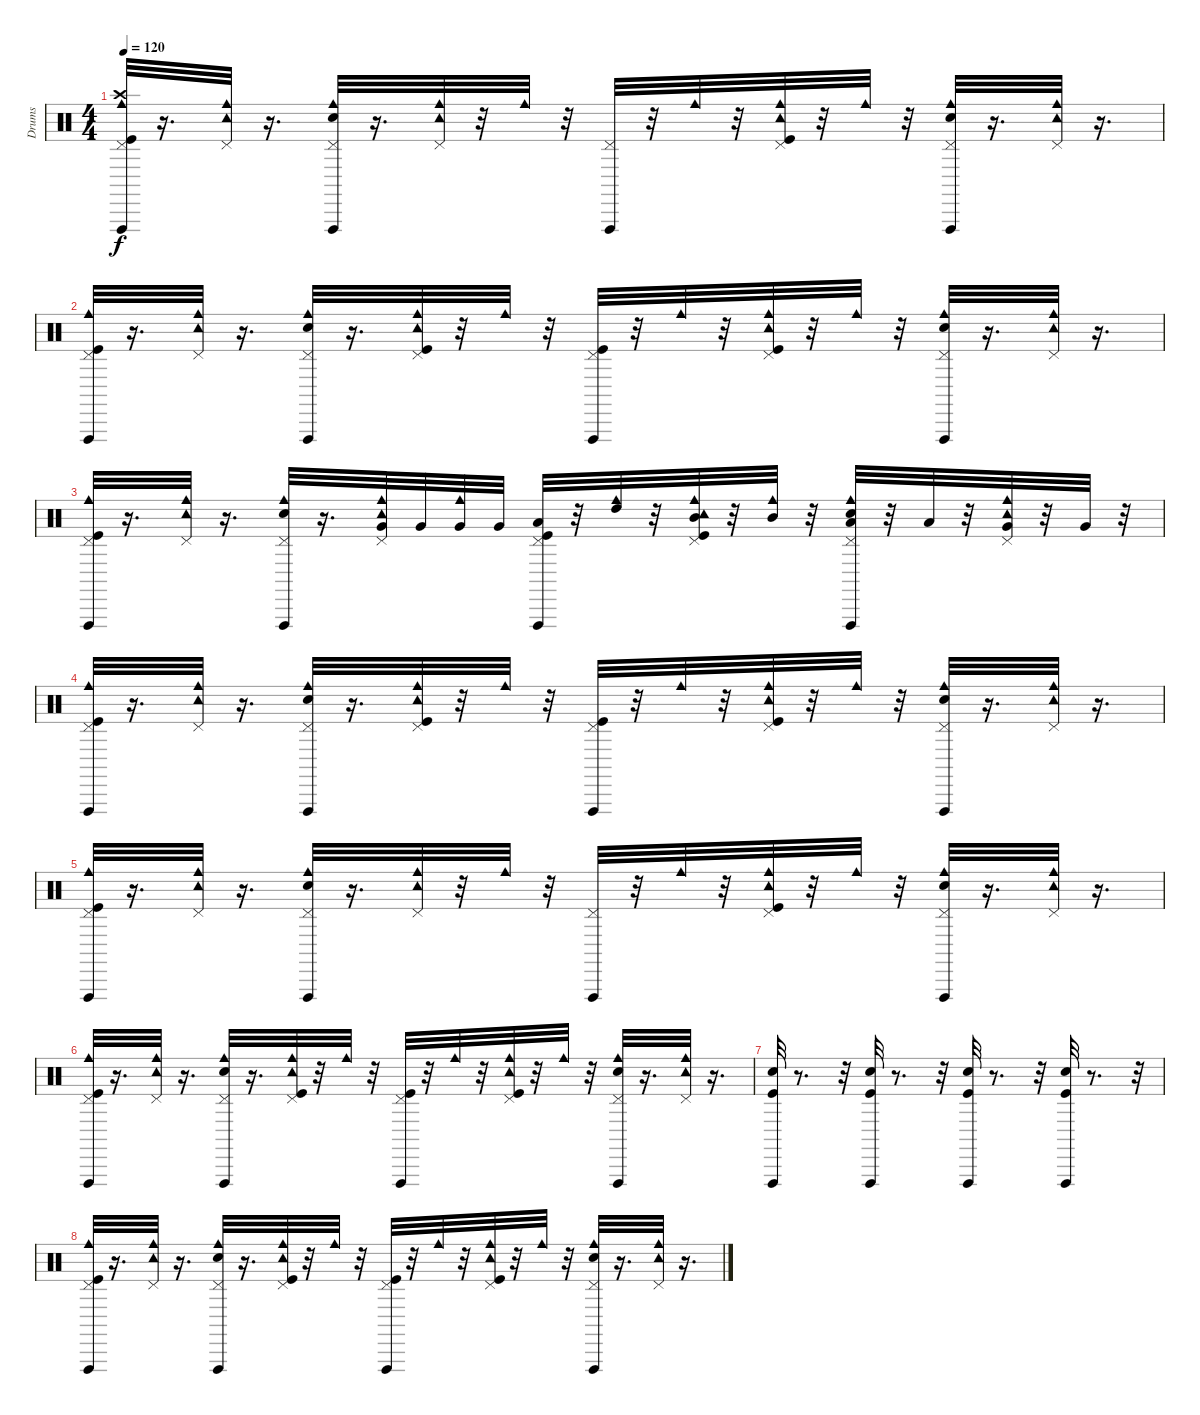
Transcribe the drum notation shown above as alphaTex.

\track ("Drums" "Drums") {instrument percussion}
\staff {score}
\articulation defaults
\ts (4 4)
\tempo 120
\clef neutral
\ks c
("Vibraslap (hit)" "Cowbell medium (hit)" "Pedal Hi-Hat (hit)" "Crash high (hit)" "Kick (hit)").32{dy f} r.16{d} ("Pedal Hi-Hat (hit)" "Tambourine (hit)" "Cowbell medium (hit)").32 r.16{d} ("Snare (hit) 2" "Cowbell medium (hit)" "Vibraslap (hit)" "Pedal Hi-Hat (hit)").32 r.16{d} ("Cowbell medium (hit)" "Pedal Hi-Hat (hit)" "Tambourine (hit)").32 r.32 "Cowbell medium (hit)".32 r.32 ("Vibraslap (hit)" "Pedal Hi-Hat (hit)").32 r.32 "Cowbell medium (hit)".32 r.32 ("Tambourine (hit)" "Cowbell medium (hit)" "Pedal Hi-Hat (hit)" "Kick (hit)").32 r.32 "Cowbell medium (hit)".32 r.32 ("Cowbell medium (hit)" "Vibraslap (hit)" "Snare (hit) 2" "Pedal Hi-Hat (hit)").32 r.16{d} ("Pedal Hi-Hat (hit)" "Cowbell medium (hit)" "Tambourine (hit)").32 r.16{d} |
("Kick (hit)" "Cowbell medium (hit)" "Pedal Hi-Hat (hit)" "Vibraslap (hit)").32 r.16{d} ("Tambourine (hit)" "Pedal Hi-Hat (hit)" "Cowbell medium (hit)").32 r.16{d} ("Pedal Hi-Hat (hit)" "Snare (hit) 2" "Cowbell medium (hit)" "Vibraslap (hit)").32 r.16{d} ("Pedal Hi-Hat (hit)" "Tambourine (hit)" "Kick (hit)" "Cowbell medium (hit)").32 r.32 "Cowbell medium (hit)".32 r.32 ("Pedal Hi-Hat (hit)" "Kick (hit)" "Vibraslap (hit)").32 r.32 "Cowbell medium (hit)".32 r.32 ("Tambourine (hit)" "Pedal Hi-Hat (hit)" "Cowbell medium (hit)" "Kick (hit)").32 r.32 "Cowbell medium (hit)".32 r.32 ("Cowbell medium (hit)" "Pedal Hi-Hat (hit)" "Snare (hit) 2" "Vibraslap (hit)").32 r.16{d} ("Pedal Hi-Hat (hit)" "Tambourine (hit)" "Cowbell medium (hit)").32 r.16{d} |
("Cowbell medium (hit)" "Pedal Hi-Hat (hit)" "Kick (hit)" "Vibraslap (hit)").32 r.16{d} ("Pedal Hi-Hat (hit)" "Cowbell medium (hit)" "Tambourine (hit)").32 r.16{d} ("Pedal Hi-Hat (hit)" "Cowbell medium (hit)" "Snare (hit) 2" "Vibraslap (hit)").32 r.16{d} ("Cowbell medium (hit)" "Pedal Hi-Hat (hit)" "Tambourine (hit)" "Very Low Tom (hit)").32 "Very Low Tom (hit)".32 ("Cowbell medium (hit)" "Very Low Tom (hit)").32 "Very Low Tom (hit)".32 ("Low Tom (hit)" "Kick (hit)" "Pedal Hi-Hat (hit)" "Vibraslap (hit)").32 r.32 ("High Tom (hit)" "Cowbell medium (hit)").32 r.32 ("Tambourine (hit)" "Pedal Hi-Hat (hit)" "Mid Tom (hit)" "Kick (hit)" "Cowbell medium (hit)").32 r.32 ("Mid Tom (hit)" "Cowbell medium (hit)").32 r.32 ("Low Tom (hit)" "Snare (hit) 2" "Pedal Hi-Hat (hit)" "Cowbell medium (hit)" "Vibraslap (hit)").32 r.32 "Low Tom (hit)".32 r.32 ("Very Low Tom (hit)" "Pedal Hi-Hat (hit)" "Tambourine (hit)" "Cowbell medium (hit)").32 r.32 "Very Low Tom (hit)".32 r.32 |
("Vibraslap (hit)" "Cowbell medium (hit)" "Pedal Hi-Hat (hit)" "Kick (hit)").32 r.16{d} ("Tambourine (hit)" "Pedal Hi-Hat (hit)" "Cowbell medium (hit)").32 r.16{d} ("Pedal Hi-Hat (hit)" "Snare (hit) 2" "Cowbell medium (hit)" "Vibraslap (hit)").32 r.16{d} ("Tambourine (hit)" "Pedal Hi-Hat (hit)" "Kick (hit)" "Cowbell medium (hit)").32 r.32 "Cowbell medium (hit)".32 r.32 ("Pedal Hi-Hat (hit)" "Vibraslap (hit)" "Kick (hit)").32 r.32 "Cowbell medium (hit)".32 r.32 ("Tambourine (hit)" "Pedal Hi-Hat (hit)" "Cowbell medium (hit)" "Kick (hit)").32 r.32 "Cowbell medium (hit)".32 r.32 ("Vibraslap (hit)" "Pedal Hi-Hat (hit)" "Cowbell medium (hit)" "Snare (hit) 2").32 r.16{d} ("Tambourine (hit)" "Cowbell medium (hit)" "Pedal Hi-Hat (hit)").32 r.16{d} |
("Vibraslap (hit)" "Cowbell medium (hit)" "Pedal Hi-Hat (hit)" "Kick (hit)").32 r.16{d} ("Pedal Hi-Hat (hit)" "Tambourine (hit)" "Cowbell medium (hit)").32 r.16{d} ("Snare (hit) 2" "Cowbell medium (hit)" "Vibraslap (hit)" "Pedal Hi-Hat (hit)").32 r.16{d} ("Cowbell medium (hit)" "Pedal Hi-Hat (hit)" "Tambourine (hit)").32 r.32 "Cowbell medium (hit)".32 r.32 ("Vibraslap (hit)" "Pedal Hi-Hat (hit)").32 r.32 "Cowbell medium (hit)".32 r.32 ("Tambourine (hit)" "Cowbell medium (hit)" "Pedal Hi-Hat (hit)" "Kick (hit)").32 r.32 "Cowbell medium (hit)".32 r.32 ("Cowbell medium (hit)" "Vibraslap (hit)" "Snare (hit) 2" "Pedal Hi-Hat (hit)").32 r.16{d} ("Pedal Hi-Hat (hit)" "Cowbell medium (hit)" "Tambourine (hit)").32 r.16{d} |
("Kick (hit)" "Cowbell medium (hit)" "Pedal Hi-Hat (hit)" "Vibraslap (hit)").32 r.16{d} ("Tambourine (hit)" "Pedal Hi-Hat (hit)" "Cowbell medium (hit)").32 r.16{d} ("Pedal Hi-Hat (hit)" "Snare (hit) 2" "Cowbell medium (hit)" "Vibraslap (hit)").32 r.16{d} ("Pedal Hi-Hat (hit)" "Tambourine (hit)" "Kick (hit)" "Cowbell medium (hit)").32 r.32 "Cowbell medium (hit)".32 r.32 ("Pedal Hi-Hat (hit)" "Kick (hit)" "Vibraslap (hit)").32 r.32 "Cowbell medium (hit)".32 r.32 ("Tambourine (hit)" "Pedal Hi-Hat (hit)" "Cowbell medium (hit)" "Kick (hit)").32 r.32 "Cowbell medium (hit)".32 r.32 ("Cowbell medium (hit)" "Pedal Hi-Hat (hit)" "Snare (hit) 2" "Vibraslap (hit)").32 r.16{d} ("Pedal Hi-Hat (hit)" "Tambourine (hit)" "Cowbell medium (hit)").32 r.16{d} |
("Snare (hit) 2" "Vibraslap (hit)" "Kick (hit)").32 r.8{d} r.32 ("Snare (hit) 2" "Vibraslap (hit)" "Kick (hit)").32 r.8{d} r.32 ("Snare (hit) 2" "Vibraslap (hit)" "Kick (hit)").32 r.8{d} r.32 ("Snare (hit) 2" "Vibraslap (hit)" "Kick (hit)").32 r.8{d} r.32 |
("Kick (hit)" "Pedal Hi-Hat (hit)" "Vibraslap (hit)" "Cowbell medium (hit)").32 r.16{d} ("Cowbell medium (hit)" "Pedal Hi-Hat (hit)" "Tambourine (hit)").32 r.16{d} ("Snare (hit) 2" "Pedal Hi-Hat (hit)" "Cowbell medium (hit)" "Vibraslap (hit)").32 r.16{d} ("Kick (hit)" "Cowbell medium (hit)" "Pedal Hi-Hat (hit)" "Tambourine (hit)").32 r.32 "Cowbell medium (hit)".32 r.32 ("Kick (hit)" "Vibraslap (hit)" "Pedal Hi-Hat (hit)").32 r.32 "Cowbell medium (hit)".32 r.32 ("Kick (hit)" "Pedal Hi-Hat (hit)" "Tambourine (hit)" "Cowbell medium (hit)").32 r.32 "Cowbell medium (hit)".32 r.32 ("Snare (hit) 2" "Pedal Hi-Hat (hit)" "Cowbell medium (hit)" "Vibraslap (hit)").32 r.16{d} ("Pedal Hi-Hat (hit)" "Cowbell medium (hit)" "Tambourine (hit)").32 r.16{d}
